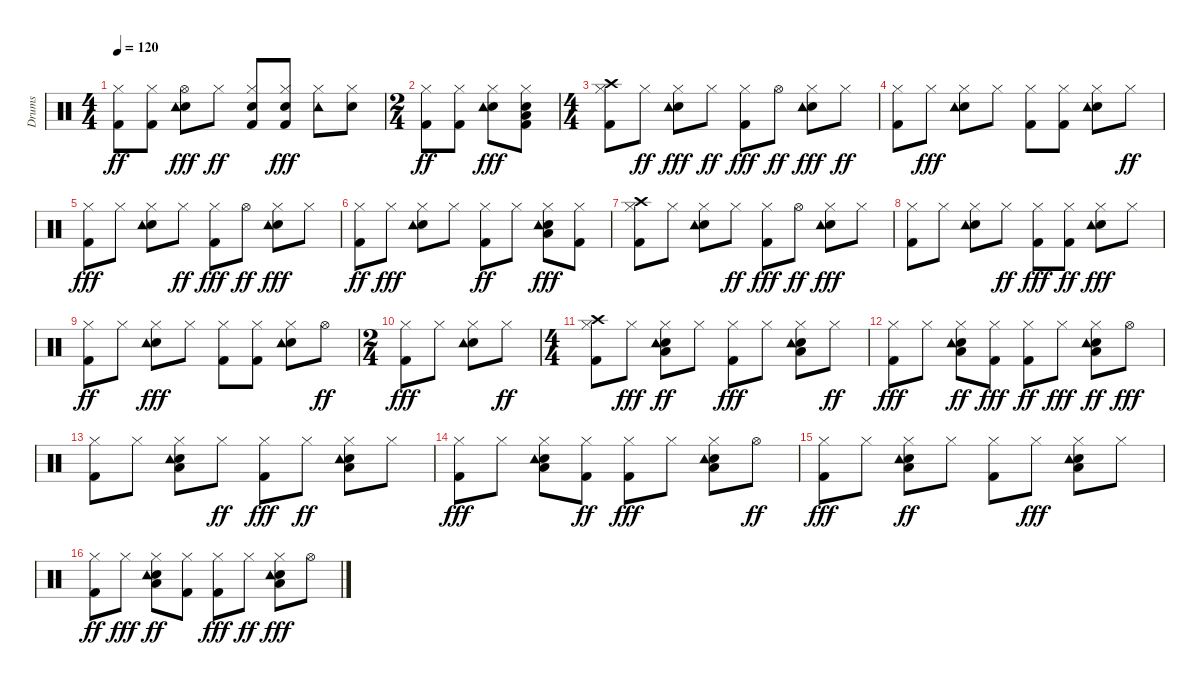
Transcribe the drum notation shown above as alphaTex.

\track ("Drums" "Drums") {instrument percussion}
\staff {score}
\articulation defaults
\ts (4 4)
\tempo 120
\clef neutral
\ks c
("Kick (hit) 2" "Hi-Hat (closed)").8{dy ff} ("Kick (hit) 2" "Hi-Hat (closed)").8 ("Hi-Hat (open)" "Snare (hit) 2" "Tambourine (hit)").8{dy fff} "Hi-Hat (closed)".8{dy ff} ("Kick (hit) 2" "Hi-Hat (closed)" "Snare (hit) 2").8 ("Kick (hit) 2" "Hi-Hat (closed)" "Snare (hit) 2").8{dy fff} ("Hi-Hat (closed)" "Tambourine (hit)").8 ("Hi-Hat (closed)" "Snare (hit) 2").8 |
\ts (2 4)
("Kick (hit) 2" "Hi-Hat (closed)").8{dy ff} ("Kick (hit) 2" "Hi-Hat (closed)").8 ("Hi-Hat (closed)" "Snare (hit) 2" "Tambourine (hit)").8{dy fff} ("Kick (hit) 2" "Hi-Hat (closed)" "Low Floor Tom (hit)" "Snare (hit) 2").8 |
\ts (4 4)
("Kick (hit) 2" "Hi-Hat (closed)" "Crash high (hit)").8 "Hi-Hat (closed)".8{dy ff} ("Hi-Hat (closed)" "Snare (hit) 2" "Tambourine (hit)").8{dy fff} "Hi-Hat (closed)".8{dy ff} ("Kick (hit) 2" "Hi-Hat (closed)").8{dy fff} "Hi-Hat (open)".8{dy ff} ("Hi-Hat (closed)" "Snare (hit) 2" "Tambourine (hit)").8{dy fff} "Hi-Hat (closed)".8{dy ff} |
("Kick (hit) 2" "Hi-Hat (closed)").8 "Hi-Hat (closed)".8{dy fff} ("Hi-Hat (closed)" "Snare (hit) 2" "Tambourine (hit)").8 "Hi-Hat (closed)".8 ("Kick (hit) 2" "Hi-Hat (closed)").8 ("Kick (hit) 2" "Hi-Hat (closed)").8 ("Hi-Hat (closed)" "Snare (hit) 2" "Tambourine (hit)").8 "Hi-Hat (closed)".8{dy ff} |
("Kick (hit) 2" "Hi-Hat (closed)").8{dy fff} "Hi-Hat (closed)".8 ("Hi-Hat (closed)" "Snare (hit) 2" "Tambourine (hit)").8 "Hi-Hat (closed)".8{dy ff} ("Kick (hit) 2" "Hi-Hat (closed)").8{dy fff} "Hi-Hat (open)".8{dy ff} ("Hi-Hat (closed)" "Snare (hit) 2" "Tambourine (hit)").8{dy fff} "Hi-Hat (closed)".8 |
("Kick (hit) 2" "Hi-Hat (closed)").8{dy ff} "Hi-Hat (closed)".8{dy fff} ("Hi-Hat (closed)" "Snare (hit) 2" "Tambourine (hit)").8 "Hi-Hat (closed)".8 ("Kick (hit) 2" "Hi-Hat (closed)").8{dy ff} "Hi-Hat (closed)".8 ("Hi-Hat (closed)" "Low Floor Tom (hit)" "Snare (hit) 2" "Tambourine (hit)").8{dy fff} ("Kick (hit) 2" "Hi-Hat (closed)").8 |
("Kick (hit) 2" "Hi-Hat (closed)" "Crash high (hit)").8 "Hi-Hat (closed)".8 ("Hi-Hat (closed)" "Snare (hit) 2" "Tambourine (hit)").8 "Hi-Hat (closed)".8{dy ff} ("Kick (hit) 2" "Hi-Hat (closed)").8{dy fff} "Hi-Hat (open)".8{dy ff} ("Hi-Hat (closed)" "Snare (hit) 2" "Tambourine (hit)").8{dy fff} "Hi-Hat (closed)".8 |
("Kick (hit) 2" "Hi-Hat (closed)").8 "Hi-Hat (closed)".8 ("Hi-Hat (closed)" "Snare (hit) 2" "Tambourine (hit)").8 "Hi-Hat (closed)".8{dy ff} ("Kick (hit) 2" "Hi-Hat (closed)").8{dy fff} ("Kick (hit) 2" "Hi-Hat (closed)").8{dy ff} ("Hi-Hat (closed)" "Snare (hit) 2" "Tambourine (hit)").8{dy fff} "Hi-Hat (closed)".8 |
("Kick (hit) 2" "Hi-Hat (closed)").8{dy ff} "Hi-Hat (closed)".8 ("Hi-Hat (closed)" "Snare (hit) 2" "Tambourine (hit)").8{dy fff} "Hi-Hat (closed)".8 ("Kick (hit) 2" "Hi-Hat (closed)").8 ("Kick (hit) 2" "Hi-Hat (closed)").8 ("Hi-Hat (closed)" "Snare (hit) 2" "Tambourine (hit)").8 "Hi-Hat (open)".8{dy ff} |
\ts (2 4)
("Kick (hit) 2" "Hi-Hat (closed)").8{dy fff} "Hi-Hat (closed)".8 ("Hi-Hat (closed)" "Snare (hit) 2" "Tambourine (hit)").8 "Hi-Hat (closed)".8{dy ff} |
\ts (4 4)
("Crash high (hit)" "Kick (hit) 2" "Hi-Hat (closed)").8 "Hi-Hat (closed)".8{dy fff} ("Hi-Hat (closed)" "Low Floor Tom (hit)" "Snare (hit) 2" "Tambourine (hit)").8{dy ff} "Hi-Hat (closed)".8 ("Kick (hit) 2" "Hi-Hat (closed)").8{dy fff} "Hi-Hat (closed)".8 ("Hi-Hat (closed)" "Low Floor Tom (hit)" "Snare (hit) 2" "Tambourine (hit)").8 "Hi-Hat (closed)".8{dy ff} |
("Kick (hit) 2" "Hi-Hat (closed)").8{dy fff} "Hi-Hat (closed)".8 ("Hi-Hat (closed)" "Low Floor Tom (hit)" "Snare (hit) 2" "Tambourine (hit)").8{dy ff} ("Kick (hit) 2" "Hi-Hat (closed)").8{dy fff} ("Kick (hit) 2" "Hi-Hat (closed)").8{dy ff} "Hi-Hat (closed)".8{dy fff} ("Hi-Hat (closed)" "Low Floor Tom (hit)" "Snare (hit) 2" "Tambourine (hit)").8{dy ff} "Hi-Hat (open)".8{dy fff} |
("Kick (hit) 2" "Hi-Hat (closed)").8 "Hi-Hat (closed)".8 ("Hi-Hat (closed)" "Low Floor Tom (hit)" "Snare (hit) 2" "Tambourine (hit)").8 "Hi-Hat (closed)".8{dy ff} ("Kick (hit) 2" "Hi-Hat (closed)").8{dy fff} "Hi-Hat (closed)".8{dy ff} ("Hi-Hat (closed)" "Low Floor Tom (hit)" "Snare (hit) 2" "Tambourine (hit)").8 "Hi-Hat (closed)".8 |
("Kick (hit) 2" "Hi-Hat (closed)").8{dy fff} "Hi-Hat (closed)".8 ("Hi-Hat (closed)" "Low Floor Tom (hit)" "Snare (hit) 2" "Tambourine (hit)").8 ("Kick (hit) 2" "Hi-Hat (closed)").8{dy ff} ("Kick (hit) 2" "Hi-Hat (closed)").8{dy fff} "Hi-Hat (closed)".8 ("Hi-Hat (closed)" "Low Floor Tom (hit)" "Snare (hit) 2" "Tambourine (hit)").8 "Hi-Hat (open)".8{dy ff} |
("Kick (hit) 2" "Hi-Hat (closed)").8{dy fff} "Hi-Hat (closed)".8 ("Hi-Hat (closed)" "Low Floor Tom (hit)" "Snare (hit) 2" "Tambourine (hit)").8{dy ff} "Hi-Hat (closed)".8 ("Kick (hit) 2" "Hi-Hat (closed)").8 "Hi-Hat (closed)".8{dy fff} ("Hi-Hat (closed)" "Low Floor Tom (hit)" "Snare (hit) 2" "Tambourine (hit)").8 "Hi-Hat (closed)".8 |
("Kick (hit) 2" "Hi-Hat (closed)").8{dy ff} "Hi-Hat (closed)".8{dy fff} ("Hi-Hat (closed)" "Low Floor Tom (hit)" "Snare (hit) 2" "Tambourine (hit)").8{dy ff} ("Kick (hit) 2" "Hi-Hat (closed)").8 ("Kick (hit) 2" "Hi-Hat (closed)").8{dy fff} "Hi-Hat (closed)".8{dy ff} ("Hi-Hat (closed)" "Low Floor Tom (hit)" "Snare (hit) 2" "Tambourine (hit)").8{dy fff} "Hi-Hat (open)".8
